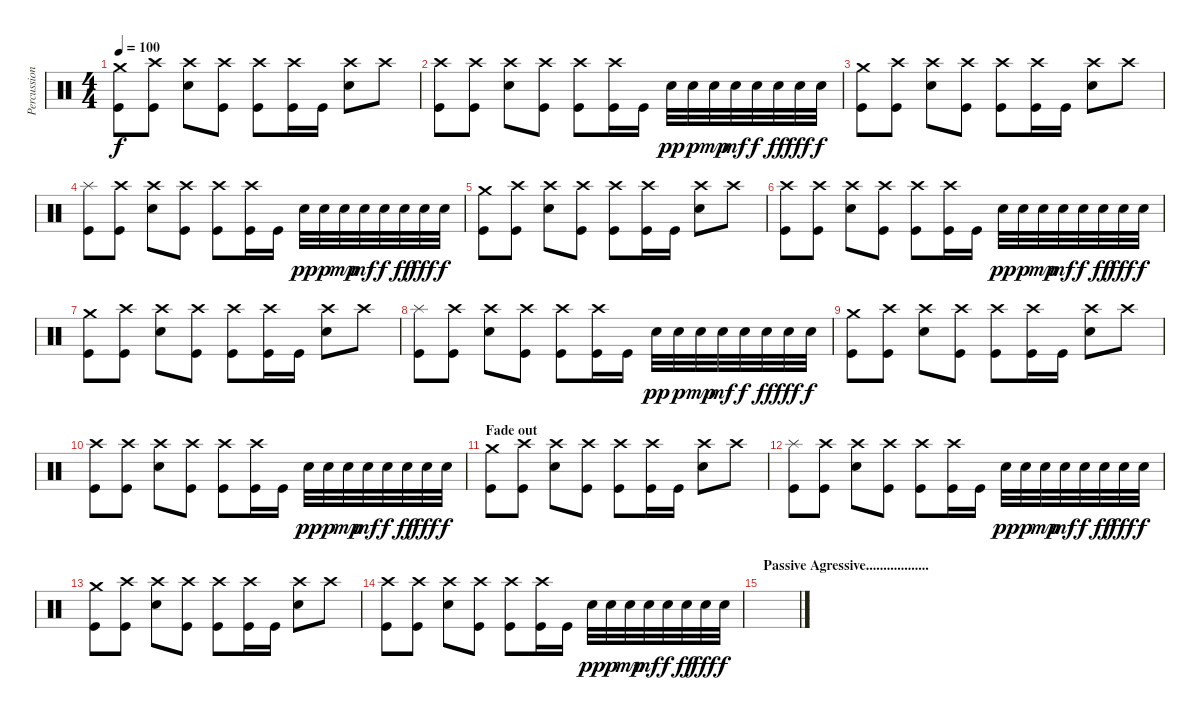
\track ("Percussions" "Percussion") {instrument percussion}
\staff {score}
\articulation defaults
\ts (4 4)
\tempo 100
\clef neutral
\ks c
("Crash medium (hit)" "Kick (hit)").8{dy f} ("Crash high (hit)" "Kick (hit)").8 ("Crash high (hit)" "Electric Snare (hit)").8 ("Crash high (hit)" "Kick (hit)").8 ("Crash high (hit)" "Kick (hit)").8 ("Crash high (hit)" "Kick (hit)").16 "Kick (hit)".16 ("Crash high (hit)" "Electric Snare (hit)").8 "Crash high (hit)".8 |
("Crash high (hit)" "Kick (hit)").8 ("Crash high (hit)" "Kick (hit)").8 ("Crash high (hit)" "Electric Snare (hit)").8 ("Crash high (hit)" "Kick (hit)").8 ("Crash high (hit)" "Kick (hit)").8 ("Crash high (hit)" "Kick (hit)").16 "Kick (hit)".16 "Electric Snare (hit)".32{dy pp} "Electric Snare (hit)".32{dy p} "Electric Snare (hit)".32{dy mp} "Electric Snare (hit)".32{dy mf} "Electric Snare (hit)".32{dy f} "Electric Snare (hit)".32{dy ff} "Electric Snare (hit)".32{dy fff} "Electric Snare (hit)".32{dy f} |
("Crash medium (hit)" "Kick (hit)").8 ("Crash high (hit)" "Kick (hit)").8 ("Crash high (hit)" "Electric Snare (hit)").8 ("Crash high (hit)" "Kick (hit)").8 ("Crash high (hit)" "Kick (hit)").8 ("Crash high (hit)" "Kick (hit)").16 "Kick (hit)".16 ("Crash high (hit)" "Electric Snare (hit)").8 "Crash high (hit)".8 |
("Splash (hit)" "Kick (hit)").8 ("Crash high (hit)" "Kick (hit)").8 ("Crash high (hit)" "Electric Snare (hit)").8 ("Crash high (hit)" "Kick (hit)").8 ("Crash high (hit)" "Kick (hit)").8 ("Crash high (hit)" "Kick (hit)").16 "Kick (hit)".16 "Electric Snare (hit)".32{dy pp} "Electric Snare (hit)".32{dy p} "Electric Snare (hit)".32{dy mp} "Electric Snare (hit)".32{dy mf} "Electric Snare (hit)".32{dy f} "Electric Snare (hit)".32{dy ff} "Electric Snare (hit)".32{dy fff} "Electric Snare (hit)".32{dy f} |
("Crash medium (hit)" "Kick (hit)").8 ("Crash high (hit)" "Kick (hit)").8 ("Crash high (hit)" "Electric Snare (hit)").8 ("Crash high (hit)" "Kick (hit)").8 ("Crash high (hit)" "Kick (hit)").8 ("Crash high (hit)" "Kick (hit)").16 "Kick (hit)".16 ("Crash high (hit)" "Electric Snare (hit)").8 "Crash high (hit)".8 |
("Crash high (hit)" "Kick (hit)").8 ("Crash high (hit)" "Kick (hit)").8 ("Crash high (hit)" "Electric Snare (hit)").8 ("Crash high (hit)" "Kick (hit)").8 ("Crash high (hit)" "Kick (hit)").8 ("Crash high (hit)" "Kick (hit)").16 "Kick (hit)".16 "Electric Snare (hit)".32{dy pp} "Electric Snare (hit)".32{dy p} "Electric Snare (hit)".32{dy mp} "Electric Snare (hit)".32{dy mf} "Electric Snare (hit)".32{dy f} "Electric Snare (hit)".32{dy ff} "Electric Snare (hit)".32{dy fff} "Electric Snare (hit)".32{dy f} |
("Crash medium (hit)" "Kick (hit)").8 ("Crash high (hit)" "Kick (hit)").8 ("Crash high (hit)" "Electric Snare (hit)").8 ("Crash high (hit)" "Kick (hit)").8 ("Crash high (hit)" "Kick (hit)").8 ("Crash high (hit)" "Kick (hit)").16 "Kick (hit)".16 ("Crash high (hit)" "Electric Snare (hit)").8 "Crash high (hit)".8 |
("Splash (hit)" "Kick (hit)").8 ("Crash high (hit)" "Kick (hit)").8 ("Crash high (hit)" "Electric Snare (hit)").8 ("Crash high (hit)" "Kick (hit)").8 ("Crash high (hit)" "Kick (hit)").8 ("Crash high (hit)" "Kick (hit)").16 "Kick (hit)".16 "Electric Snare (hit)".32{dy pp} "Electric Snare (hit)".32{dy p} "Electric Snare (hit)".32{dy mp} "Electric Snare (hit)".32{dy mf} "Electric Snare (hit)".32{dy f} "Electric Snare (hit)".32{dy ff} "Electric Snare (hit)".32{dy fff} "Electric Snare (hit)".32{dy f} |
("Crash medium (hit)" "Kick (hit)").8 ("Crash high (hit)" "Kick (hit)").8 ("Crash high (hit)" "Electric Snare (hit)").8 ("Crash high (hit)" "Kick (hit)").8 ("Crash high (hit)" "Kick (hit)").8 ("Crash high (hit)" "Kick (hit)").16 "Kick (hit)".16 ("Crash high (hit)" "Electric Snare (hit)").8 "Crash high (hit)".8 |
("Crash high (hit)" "Kick (hit)").8 ("Crash high (hit)" "Kick (hit)").8 ("Crash high (hit)" "Electric Snare (hit)").8 ("Crash high (hit)" "Kick (hit)").8 ("Crash high (hit)" "Kick (hit)").8 ("Crash high (hit)" "Kick (hit)").16 "Kick (hit)".16 "Electric Snare (hit)".32{dy pp} "Electric Snare (hit)".32{dy p} "Electric Snare (hit)".32{dy mp} "Electric Snare (hit)".32{dy mf} "Electric Snare (hit)".32{dy f} "Electric Snare (hit)".32{dy ff} "Electric Snare (hit)".32{dy fff} "Electric Snare (hit)".32{dy f} |
\section ("" "Fade out")
("Crash medium (hit)" "Kick (hit)").8 ("Crash high (hit)" "Kick (hit)").8 ("Crash high (hit)" "Electric Snare (hit)").8 ("Crash high (hit)" "Kick (hit)").8 ("Crash high (hit)" "Kick (hit)").8 ("Crash high (hit)" "Kick (hit)").16 "Kick (hit)".16 ("Crash high (hit)" "Electric Snare (hit)").8 "Crash high (hit)".8 |
("Splash (hit)" "Kick (hit)").8 ("Crash high (hit)" "Kick (hit)").8 ("Crash high (hit)" "Electric Snare (hit)").8 ("Crash high (hit)" "Kick (hit)").8 ("Crash high (hit)" "Kick (hit)").8 ("Crash high (hit)" "Kick (hit)").16 "Kick (hit)".16 "Electric Snare (hit)".32{dy pp} "Electric Snare (hit)".32{dy p} "Electric Snare (hit)".32{dy mp} "Electric Snare (hit)".32{dy mf} "Electric Snare (hit)".32{dy f} "Electric Snare (hit)".32{dy ff} "Electric Snare (hit)".32{dy fff} "Electric Snare (hit)".32{dy f} |
("Crash medium (hit)" "Kick (hit)").8 ("Crash high (hit)" "Kick (hit)").8 ("Crash high (hit)" "Electric Snare (hit)").8 ("Crash high (hit)" "Kick (hit)").8 ("Crash high (hit)" "Kick (hit)").8 ("Crash high (hit)" "Kick (hit)").16 "Kick (hit)".16 ("Crash high (hit)" "Electric Snare (hit)").8 "Crash high (hit)".8 |
("Crash high (hit)" "Kick (hit)").8 ("Crash high (hit)" "Kick (hit)").8 ("Crash high (hit)" "Electric Snare (hit)").8 ("Crash high (hit)" "Kick (hit)").8 ("Crash high (hit)" "Kick (hit)").8 ("Crash high (hit)" "Kick (hit)").16 "Kick (hit)".16 "Electric Snare (hit)".32{dy pp} "Electric Snare (hit)".32{dy p} "Electric Snare (hit)".32{dy mp} "Electric Snare (hit)".32{dy mf} "Electric Snare (hit)".32{dy f} "Electric Snare (hit)".32{dy ff} "Electric Snare (hit)".32{dy fff} "Electric Snare (hit)".32{dy f} |
\section ("" "Passive Agressive..................")
